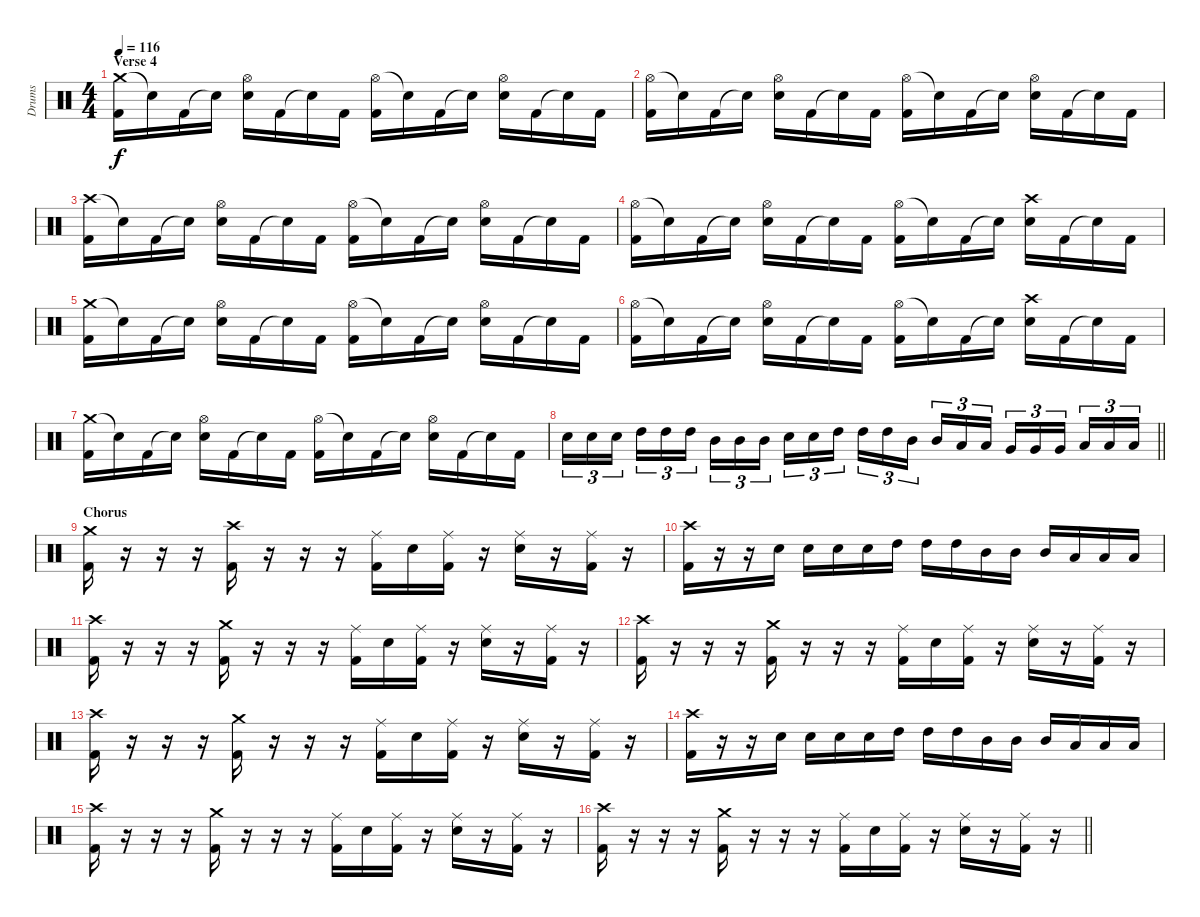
\track ("Drums" "Drums") {instrument percussion}
\staff {score}
\articulation defaults
\ts (4 4)
\section ("" "Verse 4")
\tempo 116
\clef neutral
\ks c
("Crash medium (hit)" "Kick (hit) 2").16{dy f} "Snare (hit)"{t}.16 "Kick (hit) 2".16 "Snare (hit)"{t}.16 ("Hi-Hat (open)" "Snare (hit) 2").16 "Kick (hit) 2".16 "Snare (hit)"{t}.16 "Kick (hit) 2".16 ("Hi-Hat (open)" "Kick (hit) 2").16 "Snare (hit)"{t}.16 "Kick (hit) 2".16 "Snare (hit)"{t}.16 ("Hi-Hat (open)" "Snare (hit) 2").16 "Kick (hit) 2".16 "Snare (hit)"{t}.16 "Kick (hit) 2".16 |
("Hi-Hat (open)" "Kick (hit) 2").16 "Snare (hit)"{t}.16 "Kick (hit) 2".16 "Snare (hit)"{t}.16 ("Hi-Hat (open)" "Snare (hit) 2").16 "Kick (hit) 2".16 "Snare (hit)"{t}.16 "Kick (hit) 2".16 ("Hi-Hat (open)" "Kick (hit) 2").16 "Snare (hit)"{t}.16 "Kick (hit) 2".16 "Snare (hit)"{t}.16 ("Hi-Hat (open)" "Snare (hit) 2").16 "Kick (hit) 2".16 "Snare (hit)"{t}.16 "Kick (hit) 2".16 |
("Crash high (hit)" "Kick (hit) 2").16 "Snare (hit)"{t}.16 "Kick (hit) 2".16 "Snare (hit)"{t}.16 ("Hi-Hat (open)" "Snare (hit) 2").16 "Kick (hit) 2".16 "Snare (hit)"{t}.16 "Kick (hit) 2".16 ("Hi-Hat (open)" "Kick (hit) 2").16 "Snare (hit)"{t}.16 "Kick (hit) 2".16 "Snare (hit)"{t}.16 ("Hi-Hat (open)" "Snare (hit) 2").16 "Kick (hit) 2".16 "Snare (hit)"{t}.16 "Kick (hit) 2".16 |
("Hi-Hat (open)" "Kick (hit) 2").16 "Snare (hit)"{t}.16 "Kick (hit) 2".16 "Snare (hit)"{t}.16 ("Hi-Hat (open)" "Snare (hit) 2").16 "Kick (hit) 2".16 "Snare (hit)"{t}.16 "Kick (hit) 2".16 ("Hi-Hat (open)" "Kick (hit) 2").16 "Snare (hit)"{t}.16 "Kick (hit) 2".16 "Snare (hit)"{t}.16 ("Crash high (hit)" "Snare (hit) 2").16 "Kick (hit) 2".16 "Snare (hit)"{t}.16 "Kick (hit) 2".16 |
("Crash medium (hit)" "Kick (hit) 2").16 "Snare (hit)"{t}.16 "Kick (hit) 2".16 "Snare (hit)"{t}.16 ("Hi-Hat (open)" "Snare (hit) 2").16 "Kick (hit) 2".16 "Snare (hit)"{t}.16 "Kick (hit) 2".16 ("Hi-Hat (open)" "Kick (hit) 2").16 "Snare (hit)"{t}.16 "Kick (hit) 2".16 "Snare (hit)"{t}.16 ("Hi-Hat (open)" "Snare (hit) 2").16 "Kick (hit) 2".16 "Snare (hit)"{t}.16 "Kick (hit) 2".16 |
("Hi-Hat (open)" "Kick (hit) 2").16 "Snare (hit)"{t}.16 "Kick (hit) 2".16 "Snare (hit)"{t}.16 ("Hi-Hat (open)" "Snare (hit) 2").16 "Kick (hit) 2".16 "Snare (hit)"{t}.16 "Kick (hit) 2".16 ("Hi-Hat (open)" "Kick (hit) 2").16 "Snare (hit)"{t}.16 "Kick (hit) 2".16 "Snare (hit)"{t}.16 ("Crash high (hit)" "Snare (hit) 2").16 "Kick (hit) 2".16 "Snare (hit)"{t}.16 "Kick (hit) 2".16 |
("Crash medium (hit)" "Kick (hit) 2").16 "Snare (hit)"{t}.16 "Kick (hit) 2".16 "Snare (hit)"{t}.16 ("Hi-Hat (open)" "Snare (hit) 2").16 "Kick (hit) 2".16 "Snare (hit)"{t}.16 "Kick (hit) 2".16 ("Hi-Hat (open)" "Kick (hit) 2").16 "Snare (hit)"{t}.16 "Kick (hit) 2".16 "Snare (hit)"{t}.16 ("Hi-Hat (open)" "Snare (hit) 2").16 "Kick (hit) 2".16 "Snare (hit)"{t}.16 "Kick (hit) 2".16 |
\barLineRight lightlight "Snare (hit) 2".16{tu (3 2)} "Snare (hit) 2".16{tu (3 2)} "Snare (hit) 2".16{tu (3 2) beam splitsecondary} "High Tom (hit)".16{tu (3 2)} "High Tom (hit)".16{tu (3 2)} "High Tom (hit)".16{tu (3 2)} "Mid Tom (hit)".16{tu (3 2)} "Mid Tom (hit)".16{tu (3 2)} "Mid Tom (hit)".16{tu (3 2) beam splitsecondary} "Snare (hit) 2".16{tu (3 2)} "Snare (hit) 2".16{tu (3 2)} "High Tom (hit)".16{tu (3 2)} "High Tom (hit)".16{tu (3 2)} "High Tom (hit)".16{tu (3 2)} "Mid Tom (hit)".16{tu (3 2) beam splitsecondary} "Mid Tom (hit)".16{tu (3 2)} "Low Tom (hit)".16{tu (3 2)} "Low Tom (hit)".16{tu (3 2)} "Very Low Tom (hit)".16{tu (3 2)} "Very Low Tom (hit)".16{tu (3 2)} "Very Low Tom (hit)".16{tu (3 2) beam splitsecondary} "Low Floor Tom (hit)".16{tu (3 2)} "Low Floor Tom (hit)".16{tu (3 2)} "Low Floor Tom (hit)".16{tu (3 2)}
|
\section ("" "Chorus")
("Crash medium (hit)" "Kick (hit) 2").16 r.16 r.16 r.16 ("Crash high (hit)" "Kick (hit) 2").16 r.16 r.16 r.16 ("Ride (middle)" "Kick (hit) 2").16 "Snare (hit) 2".16 ("Ride (middle)" "Kick (hit) 2").16 r.16 ("Ride (middle)" "Snare (hit) 2").16 r.16 ("Ride (middle)" "Kick (hit) 2").16 r.16 |
("Crash high (hit)" "Kick (hit) 2").16 r.16 r.16 "Snare (hit) 2".16 "Snare (hit) 2".16 "Snare (hit) 2".16 "Snare (hit) 2".16 "High Tom (hit)".16 "High Tom (hit)".16 "High Tom (hit)".16 "Mid Tom (hit)".16 "Mid Tom (hit)".16 "Mid Tom (hit)".16 "Low Tom (hit)".16 "Low Tom (hit)".16 "Low Tom (hit)".16 |
("Crash high (hit)" "Kick (hit) 2").16 r.16 r.16 r.16 ("Crash medium (hit)" "Kick (hit) 2").16 r.16 r.16 r.16 ("Ride (middle)" "Kick (hit) 2").16 "Snare (hit) 2".16 ("Ride (middle)" "Kick (hit) 2").16 r.16 ("Ride (middle)" "Snare (hit) 2").16 r.16 ("Ride (middle)" "Kick (hit) 2").16 r.16 |
("Crash high (hit)" "Kick (hit) 2").16 r.16 r.16 r.16 ("Crash medium (hit)" "Kick (hit) 2").16 r.16 r.16 r.16 ("Ride (middle)" "Kick (hit) 2").16 "Snare (hit) 2".16 ("Ride (middle)" "Kick (hit) 2").16 r.16 ("Ride (middle)" "Snare (hit) 2").16 r.16 ("Ride (middle)" "Kick (hit) 2").16 r.16 |
("Crash high (hit)" "Kick (hit) 2").16 r.16 r.16 r.16 ("Crash medium (hit)" "Kick (hit) 2").16 r.16 r.16 r.16 ("Ride (middle)" "Kick (hit) 2").16 "Snare (hit) 2".16 ("Ride (middle)" "Kick (hit) 2").16 r.16 ("Ride (middle)" "Snare (hit) 2").16 r.16 ("Ride (middle)" "Kick (hit) 2").16 r.16 |
("Crash high (hit)" "Kick (hit) 2").16 r.16 r.16 "Snare (hit) 2".16 "Snare (hit) 2".16 "Snare (hit) 2".16 "Snare (hit) 2".16 "High Tom (hit)".16 "High Tom (hit)".16 "High Tom (hit)".16 "Mid Tom (hit)".16 "Mid Tom (hit)".16 "Mid Tom (hit)".16 "Low Tom (hit)".16 "Low Tom (hit)".16 "Low Tom (hit)".16 |
("Crash high (hit)" "Kick (hit) 2").16 r.16 r.16 r.16 ("Crash medium (hit)" "Kick (hit) 2").16 r.16 r.16 r.16 ("Ride (middle)" "Kick (hit) 2").16 "Snare (hit) 2".16 ("Ride (middle)" "Kick (hit) 2").16 r.16 ("Ride (middle)" "Snare (hit) 2").16 r.16 ("Ride (middle)" "Kick (hit) 2").16 r.16 |
\barLineRight lightlight
("Crash high (hit)" "Kick (hit) 2").16 r.16 r.16 r.16 ("Crash medium (hit)" "Kick (hit) 2").16 r.16 r.16 r.16 ("Ride (middle)" "Kick (hit) 2").16 "Snare (hit) 2".16 ("Ride (middle)" "Kick (hit) 2").16 r.16 ("Ride (middle)" "Snare (hit) 2").16 r.16 ("Ride (middle)" "Kick (hit) 2").16 r.16
